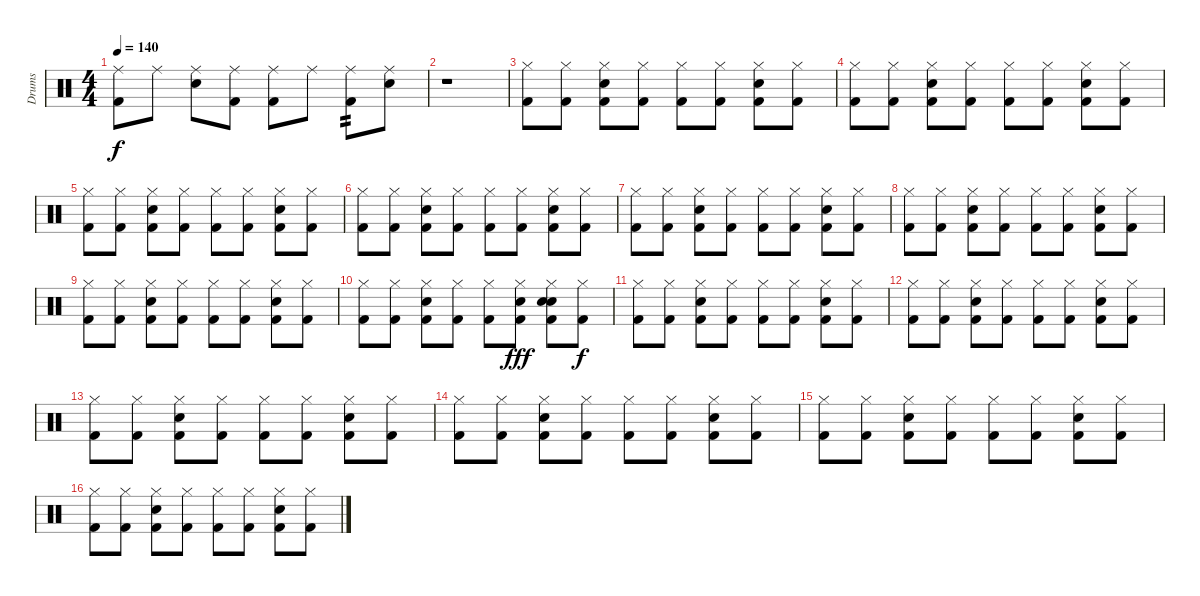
\track ("Drums" "Drums") {instrument percussion}
\staff {score}
\articulation defaults
\ts (4 4)
\tempo 140
\clef neutral
\ks c
("Ride (middle)" "Kick (hit) 2").8{dy f} "Ride (middle)".8 ("Ride (middle)" "Electric Snare (hit)").8 ("Ride (middle)" "Kick (hit) 2").8 ("Ride (middle)" "Kick (hit) 2").8 "Ride (middle)".8 ("Ride (middle)" "Kick (hit) 2").8{tp 2} ("Ride (middle)" "Electric Snare (hit)").8 |
r.1 |
("Hi-Hat (closed)" "Kick (hit) 2").8 ("Hi-Hat (closed)" "Kick (hit) 2").8 ("Hi-Hat (closed)" "Electric Snare (hit)" "Kick (hit) 2").8 ("Hi-Hat (closed)" "Kick (hit) 2").8 ("Hi-Hat (closed)" "Kick (hit) 2").8 ("Hi-Hat (closed)" "Kick (hit) 2").8 ("Hi-Hat (closed)" "Electric Snare (hit)" "Kick (hit) 2").8 ("Hi-Hat (closed)" "Kick (hit) 2").8 |
("Hi-Hat (closed)" "Kick (hit) 2").8 ("Hi-Hat (closed)" "Kick (hit) 2").8 ("Hi-Hat (closed)" "Electric Snare (hit)" "Kick (hit) 2").8 ("Hi-Hat (closed)" "Kick (hit) 2").8 ("Hi-Hat (closed)" "Kick (hit) 2").8 ("Hi-Hat (closed)" "Kick (hit) 2").8 ("Hi-Hat (closed)" "Electric Snare (hit)" "Kick (hit) 2").8 ("Hi-Hat (closed)" "Kick (hit) 2").8 |
("Hi-Hat (closed)" "Kick (hit) 2").8 ("Hi-Hat (closed)" "Kick (hit) 2").8 ("Hi-Hat (closed)" "Electric Snare (hit)" "Kick (hit) 2").8 ("Hi-Hat (closed)" "Kick (hit) 2").8 ("Hi-Hat (closed)" "Kick (hit) 2").8 ("Hi-Hat (closed)" "Kick (hit) 2").8 ("Hi-Hat (closed)" "Electric Snare (hit)" "Kick (hit) 2").8 ("Hi-Hat (closed)" "Kick (hit) 2").8 |
("Hi-Hat (closed)" "Kick (hit) 2").8 ("Hi-Hat (closed)" "Kick (hit) 2").8 ("Hi-Hat (closed)" "Electric Snare (hit)" "Kick (hit) 2").8 ("Hi-Hat (closed)" "Kick (hit) 2").8 ("Hi-Hat (closed)" "Kick (hit) 2").8 ("Hi-Hat (closed)" "Kick (hit) 2").8 ("Hi-Hat (closed)" "Electric Snare (hit)" "Kick (hit) 2").8 ("Hi-Hat (closed)" "Kick (hit) 2").8 |
("Hi-Hat (closed)" "Kick (hit) 2").8 ("Hi-Hat (closed)" "Kick (hit) 2").8 ("Hi-Hat (closed)" "Electric Snare (hit)" "Kick (hit) 2").8 ("Hi-Hat (closed)" "Kick (hit) 2").8 ("Hi-Hat (closed)" "Kick (hit) 2").8 ("Hi-Hat (closed)" "Kick (hit) 2").8 ("Hi-Hat (closed)" "Electric Snare (hit)" "Kick (hit) 2").8 ("Hi-Hat (closed)" "Kick (hit) 2").8 |
("Hi-Hat (closed)" "Kick (hit) 2").8 ("Hi-Hat (closed)" "Kick (hit) 2").8 ("Hi-Hat (closed)" "Electric Snare (hit)" "Kick (hit) 2").8 ("Hi-Hat (closed)" "Kick (hit) 2").8 ("Hi-Hat (closed)" "Kick (hit) 2").8 ("Hi-Hat (closed)" "Kick (hit) 2").8 ("Hi-Hat (closed)" "Electric Snare (hit)" "Kick (hit) 2").8 ("Hi-Hat (closed)" "Kick (hit) 2").8 |
("Hi-Hat (closed)" "Kick (hit) 2").8 ("Hi-Hat (closed)" "Kick (hit) 2").8 ("Hi-Hat (closed)" "Electric Snare (hit)" "Kick (hit) 2").8 ("Hi-Hat (closed)" "Kick (hit) 2").8 ("Hi-Hat (closed)" "Kick (hit) 2").8 ("Hi-Hat (closed)" "Kick (hit) 2").8 ("Hi-Hat (closed)" "Electric Snare (hit)" "Kick (hit) 2").8 ("Hi-Hat (closed)" "Kick (hit) 2").8 |
("Hi-Hat (closed)" "Kick (hit) 2").8 ("Hi-Hat (closed)" "Kick (hit) 2").8 ("Hi-Hat (closed)" "Electric Snare (hit)" "Kick (hit) 2").8 ("Hi-Hat (closed)" "Kick (hit) 2").8 ("Hi-Hat (closed)" "Kick (hit) 2").8 ("Hi-Hat (closed)" "Hand Clap (hit)" "Kick (hit) 2").8{dy fff} ("Hi-Hat (closed)" "Hand Clap (hit)" "Electric Snare (hit)" "Kick (hit) 2").8 ("Hi-Hat (closed)" "Kick (hit) 2").8{dy f} |
("Hi-Hat (closed)" "Kick (hit) 2").8 ("Hi-Hat (closed)" "Kick (hit) 2").8 ("Hi-Hat (closed)" "Electric Snare (hit)" "Kick (hit) 2").8 ("Hi-Hat (closed)" "Kick (hit) 2").8 ("Hi-Hat (closed)" "Kick (hit) 2").8 ("Hi-Hat (closed)" "Kick (hit) 2").8 ("Hi-Hat (closed)" "Electric Snare (hit)" "Kick (hit) 2").8 ("Hi-Hat (closed)" "Kick (hit) 2").8 |
("Hi-Hat (closed)" "Kick (hit) 2").8 ("Hi-Hat (closed)" "Kick (hit) 2").8 ("Hi-Hat (closed)" "Electric Snare (hit)" "Kick (hit) 2").8 ("Hi-Hat (closed)" "Kick (hit) 2").8 ("Hi-Hat (closed)" "Kick (hit) 2").8 ("Hi-Hat (closed)" "Kick (hit) 2").8 ("Hi-Hat (closed)" "Electric Snare (hit)" "Kick (hit) 2").8 ("Hi-Hat (closed)" "Kick (hit) 2").8 |
("Hi-Hat (closed)" "Kick (hit) 2").8 ("Hi-Hat (closed)" "Kick (hit) 2").8 ("Hi-Hat (closed)" "Electric Snare (hit)" "Kick (hit) 2").8 ("Hi-Hat (closed)" "Kick (hit) 2").8 ("Hi-Hat (closed)" "Kick (hit) 2").8 ("Hi-Hat (closed)" "Kick (hit) 2").8 ("Hi-Hat (closed)" "Electric Snare (hit)" "Kick (hit) 2").8 ("Hi-Hat (closed)" "Kick (hit) 2").8 |
("Hi-Hat (closed)" "Kick (hit) 2").8 ("Hi-Hat (closed)" "Kick (hit) 2").8 ("Hi-Hat (closed)" "Electric Snare (hit)" "Kick (hit) 2").8 ("Hi-Hat (closed)" "Kick (hit) 2").8 ("Hi-Hat (closed)" "Kick (hit) 2").8 ("Hi-Hat (closed)" "Kick (hit) 2").8 ("Hi-Hat (closed)" "Electric Snare (hit)" "Kick (hit) 2").8 ("Hi-Hat (closed)" "Kick (hit) 2").8 |
("Hi-Hat (closed)" "Kick (hit) 2").8 ("Hi-Hat (closed)" "Kick (hit) 2").8 ("Hi-Hat (closed)" "Electric Snare (hit)" "Kick (hit) 2").8 ("Hi-Hat (closed)" "Kick (hit) 2").8 ("Hi-Hat (closed)" "Kick (hit) 2").8 ("Hi-Hat (closed)" "Kick (hit) 2").8 ("Hi-Hat (closed)" "Electric Snare (hit)" "Kick (hit) 2").8 ("Hi-Hat (closed)" "Kick (hit) 2").8 |
("Hi-Hat (closed)" "Kick (hit) 2").8 ("Hi-Hat (closed)" "Kick (hit) 2").8 ("Hi-Hat (closed)" "Electric Snare (hit)" "Kick (hit) 2").8 ("Hi-Hat (closed)" "Kick (hit) 2").8 ("Hi-Hat (closed)" "Kick (hit) 2").8 ("Hi-Hat (closed)" "Kick (hit) 2").8 ("Hi-Hat (closed)" "Electric Snare (hit)" "Kick (hit) 2").8 ("Hi-Hat (closed)" "Kick (hit) 2").8
